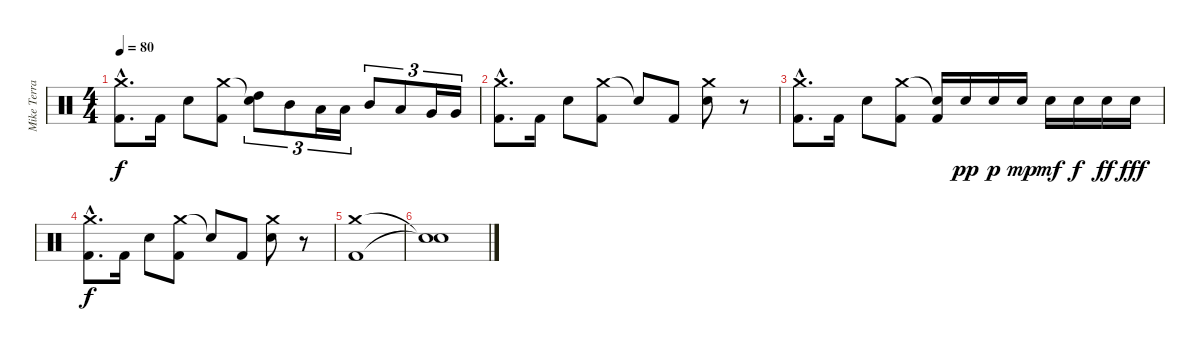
\track ("Mike Terrana" "Mike Terra") {instrument percussion}
\staff {score}
\articulation defaults
\ts (4 4)
\tempo 80
\clef neutral
\ks c
("Crash medium (hit)"{hac} "Kick (hit) 2"{hac}).8{d dy f} "Kick (hit) 2".16 "Electric Snare (hit)".8 ("Crash medium (hit)" "Kick (hit) 2").8 ("Snare (hit)"{t} "High Tom (hit)").8{tu (3 2)} "Mid Tom (hit)".8{tu (3 2)} "Low Tom (hit)".16{tu (3 2)} "Low Tom (hit)".16{tu (3 2)} "Mid Tom (hit)".8{tu (3 2)} "Low Tom (hit)".8{tu (3 2)} "Very Low Tom (hit)".16{tu (3 2)} "Very Low Tom (hit)".16{tu (3 2)} |
("Crash medium (hit)"{hac} "Kick (hit) 2"{hac}).8{d} "Kick (hit) 2".16 "Electric Snare (hit)".8 ("Crash medium (hit)" "Kick (hit) 2").8 "Snare (hit)"{t}.8 "Kick (hit) 2".8 ("Crash medium (hit)" "Electric Snare (hit)").8 r.8 |
("Crash medium (hit)"{hac} "Kick (hit) 2"{hac}).8{d} "Kick (hit) 2".16 "Electric Snare (hit)".8 ("Crash medium (hit)" "Kick (hit) 2").8 ("Snare (hit)"{t} "Kick (hit) 2").16 "Electric Snare (hit)".16{dy pp} "Electric Snare (hit)".16{dy p} "Electric Snare (hit)".16{dy mp} "Electric Snare (hit)".16{dy mf} "Electric Snare (hit)".16{dy f} "Electric Snare (hit)".16{dy ff} "Electric Snare (hit)".16{dy fff} |
("Crash medium (hit)"{hac} "Kick (hit) 2"{hac}).8{d dy f} "Kick (hit) 2".16 "Electric Snare (hit)".8 ("Crash medium (hit)" "Kick (hit) 2").8 "Snare (hit)"{t}.8 "Kick (hit) 2".8 ("Crash medium (hit)" "Electric Snare (hit)").8 r.8 |
("Crash medium (hit)" "Kick (hit) 2").1 |
("Snare (hit)"{t} "Snare (hit)"{t}).1
